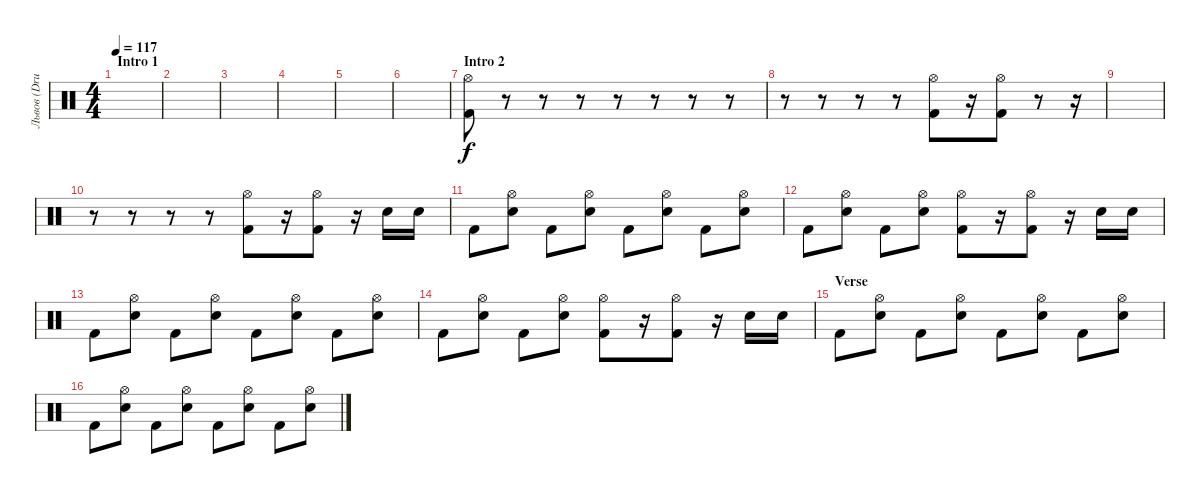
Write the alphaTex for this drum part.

\track ("Львов (Drums)" "Львов (Dru") {instrument percussion}
\staff {score}
\articulation defaults
\ts (4 4)
\section ("" "Intro 1")
\tempo 117
\clef neutral
\ks c
|
|
|
|
|
|
\section ("" "Intro 2")
("Kick (hit) 2" "Hi-Hat (open)").8 r.8 r.8 r.8 r.8 r.8 r.8 r.8 |
r.8 r.8 r.8 r.8 ("Kick (hit) 2" "Hi-Hat (open)").8 r.16 ("Hi-Hat (open)" "Kick (hit) 2").8 r.8 r.16 |
|
r.8 r.8 r.8 r.8 ("Kick (hit) 2" "Hi-Hat (open)").8 r.16 ("Hi-Hat (open)" "Kick (hit) 2").8 r.16 "Electric Snare (hit)".16 "Electric Snare (hit)".16 |
"Kick (hit) 2".8 ("Electric Snare (hit)" "Hi-Hat (open)").8 "Kick (hit) 2".8 ("Electric Snare (hit)" "Hi-Hat (open)").8 "Kick (hit) 2".8 ("Electric Snare (hit)" "Hi-Hat (open)").8 "Kick (hit) 2".8 ("Electric Snare (hit)" "Hi-Hat (open)").8 |
"Kick (hit) 2".8 ("Electric Snare (hit)" "Hi-Hat (open)").8 "Kick (hit) 2".8 ("Electric Snare (hit)" "Hi-Hat (open)").8 ("Kick (hit) 2" "Hi-Hat (open)").8 r.16 ("Kick (hit) 2" "Hi-Hat (open)").8 r.16 "Electric Snare (hit)".16 "Electric Snare (hit)".16 |
"Kick (hit) 2".8 ("Electric Snare (hit)" "Hi-Hat (open)").8 "Kick (hit) 2".8 ("Electric Snare (hit)" "Hi-Hat (open)").8 "Kick (hit) 2".8 ("Electric Snare (hit)" "Hi-Hat (open)").8 "Kick (hit) 2".8 ("Electric Snare (hit)" "Hi-Hat (open)").8 |
"Kick (hit) 2".8 ("Electric Snare (hit)" "Hi-Hat (open)").8 "Kick (hit) 2".8 ("Electric Snare (hit)" "Hi-Hat (open)").8 ("Kick (hit) 2" "Hi-Hat (open)").8 r.16 ("Kick (hit) 2" "Hi-Hat (open)").8 r.16 "Electric Snare (hit)".16 "Electric Snare (hit)".16 |
\section ("" "Verse")
"Kick (hit) 2".8 ("Electric Snare (hit)" "Hi-Hat (open)").8 "Kick (hit) 2".8 ("Electric Snare (hit)" "Hi-Hat (open)").8 "Kick (hit) 2".8 ("Electric Snare (hit)" "Hi-Hat (open)").8 "Kick (hit) 2".8 ("Electric Snare (hit)" "Hi-Hat (open)").8 |
"Kick (hit) 2".8 ("Electric Snare (hit)" "Hi-Hat (open)").8 "Kick (hit) 2".8 ("Electric Snare (hit)" "Hi-Hat (open)").8 "Kick (hit) 2".8 ("Electric Snare (hit)" "Hi-Hat (open)").8 "Kick (hit) 2".8 ("Electric Snare (hit)" "Hi-Hat (open)").8
